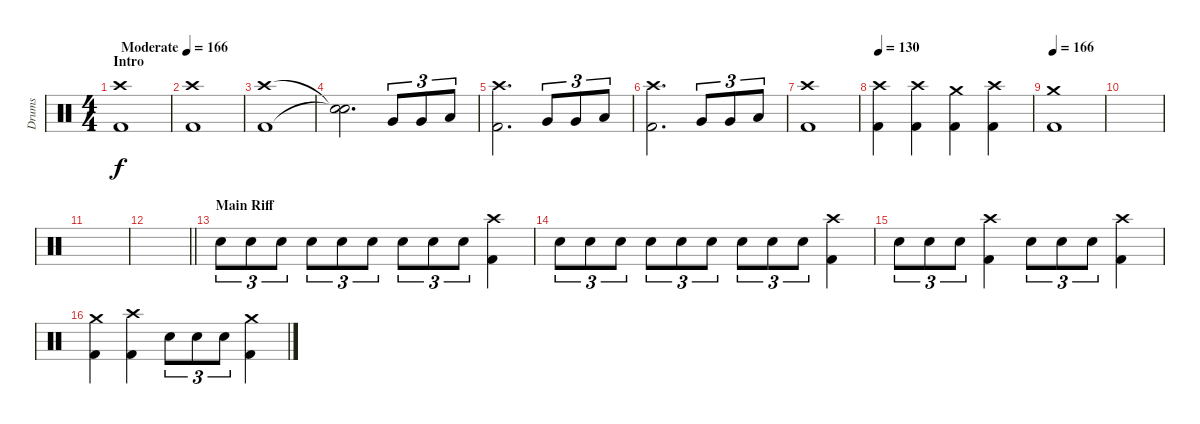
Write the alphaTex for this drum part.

\track ("Drums" "Drums") {instrument percussion}
\staff {score}
\articulation defaults
\ts (4 4)
\section ("" "Intro")
\tempo (166 "Moderate")
\clef neutral
\ks c
("Crash high (hit)" "Kick (hit) 2").1{dy f} |
("Crash high (hit)" "Kick (hit) 2").1 |
("Crash high (hit)" "Kick (hit) 2").1 |
("Snare (hit)"{t} "Snare (hit)"{t}).2{d} "Very Low Tom (hit)".8{tu (3 2)} "Very Low Tom (hit)".8{tu (3 2)} "Low Floor Tom (hit)".8{tu (3 2)} |
("Crash high (hit)" "Kick (hit) 2").2{d} "Very Low Tom (hit)".8{tu (3 2)} "Very Low Tom (hit)".8{tu (3 2)} "Low Floor Tom (hit)".8{tu (3 2)} |
("Crash high (hit)" "Kick (hit) 2").2{d} "Very Low Tom (hit)".8{tu (3 2)} "Very Low Tom (hit)".8{tu (3 2)} "Low Floor Tom (hit)".8{tu (3 2)} |
("Crash high (hit)" "Kick (hit) 2").1 |
\tempo 130
("Crash high (hit)" "Kick (hit) 2").4 ("Crash high (hit)" "Kick (hit) 2").4 ("Crash medium (hit)" "Kick (hit) 2").4 ("Crash high (hit)" "Kick (hit) 2").4 |
\tempo 166
("Crash medium (hit)" "Kick (hit) 2").1 |
|
|
\barLineRight lightlight
|
\section ("" "Main Riff")
"Snare (hit) 2".8{tu (3 2)} "Snare (hit) 2".8{tu (3 2)} "Snare (hit) 2".8{tu (3 2)} "Snare (hit) 2".8{tu (3 2)} "Snare (hit) 2".8{tu (3 2)} "Snare (hit) 2".8{tu (3 2)} "Snare (hit) 2".8{tu (3 2)} "Snare (hit) 2".8{tu (3 2)} "Snare (hit) 2".8{tu (3 2)} ("Crash high (hit)" "Kick (hit) 2").4 |
"Snare (hit) 2".8{tu (3 2)} "Snare (hit) 2".8{tu (3 2)} "Snare (hit) 2".8{tu (3 2)} "Snare (hit) 2".8{tu (3 2)} "Snare (hit) 2".8{tu (3 2)} "Snare (hit) 2".8{tu (3 2)} "Snare (hit) 2".8{tu (3 2)} "Snare (hit) 2".8{tu (3 2)} "Snare (hit) 2".8{tu (3 2)} ("Crash high (hit)" "Kick (hit) 2").4 |
"Snare (hit) 2".8{tu (3 2)} "Snare (hit) 2".8{tu (3 2)} "Snare (hit) 2".8{tu (3 2)} ("Crash high (hit)" "Kick (hit) 2").4 "Snare (hit) 2".8{tu (3 2)} "Snare (hit) 2".8{tu (3 2)} "Snare (hit) 2".8{tu (3 2)} ("Crash high (hit)" "Kick (hit) 2").4 |
("Crash medium (hit)" "Kick (hit) 2").4 ("Crash high (hit)" "Kick (hit) 2").4 "Snare (hit) 2".8{tu (3 2)} "Snare (hit) 2".8{tu (3 2)} "Snare (hit) 2".8{tu (3 2)} ("Crash medium (hit)" "Kick (hit) 2").4
